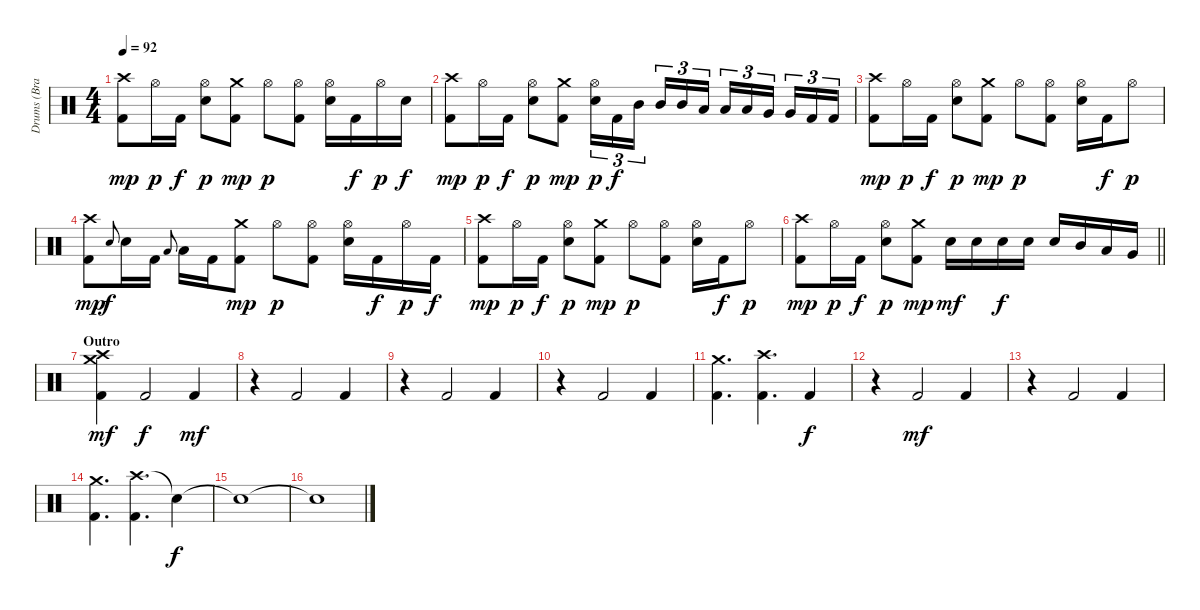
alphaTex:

\track ("Drums (Brandon Saller)" "Drums (Bra") {instrument percussion}
\staff {score}
\articulation defaults
\ts (4 4)
\tempo 92
\clef neutral
\ks c
("Crash high (hit)" "Kick (hit) 2").8{dy mp} "Hi-Hat (open)".16{dy p} "Kick (hit) 2".16{dy f} ("Hi-Hat (open)" "Electric Snare (hit)").8{dy p} ("Crash medium (hit)" "Kick (hit) 2").8{dy mp} "Hi-Hat (open)".8{dy p} ("Hi-Hat (open)" "Kick (hit) 2").8 ("Hi-Hat (open)" "Electric Snare (hit)").16 "Kick (hit) 2".16{dy f} "Hi-Hat (open)".16{dy p} "Electric Snare (hit)".16{dy f} |
("Crash high (hit)" "Kick (hit) 2").8{dy mp} "Hi-Hat (open)".16{dy p} "Kick (hit) 2".16{dy f} ("Hi-Hat (open)" "Electric Snare (hit)").8{dy p} ("Crash medium (hit)" "Kick (hit) 2").8{dy mp} ("Hi-Hat (open)" "Electric Snare (hit)").16{tu (3 2) dy p} "Kick (hit) 2".16{tu (3 2) dy f} "Mid Tom (hit)".16{tu (3 2) beam splitsecondary} "Mid Tom (hit)".16{tu (3 2)} "Mid Tom (hit)".16{tu (3 2)} "Low Tom (hit)".16{tu (3 2)} "Low Tom (hit)".16{tu (3 2)} "Low Tom (hit)".16{tu (3 2)} "Very Low Tom (hit)".16{tu (3 2) beam splitsecondary} "Very Low Tom (hit)".16{tu (3 2)} "Kick (hit) 2".16{tu (3 2)} "Kick (hit) 2".16{tu (3 2)} |
("Crash high (hit)" "Kick (hit) 2").8{dy mp} "Hi-Hat (open)".16{dy p} "Kick (hit) 2".16{dy f} ("Hi-Hat (open)" "Electric Snare (hit)").8{dy p} ("Crash medium (hit)" "Kick (hit) 2").8{dy mp} "Hi-Hat (open)".8{dy p} ("Hi-Hat (open)" "Kick (hit) 2").8 ("Hi-Hat (open)" "Electric Snare (hit)").16 "Kick (hit) 2".16{dy f} "Hi-Hat (open)".8{dy p} |
("Crash high (hit)" "Kick (hit) 2").8{dy mp} "Electric Snare (hit)"{h}.8{gr onbeat dy f} "Electric Snare (hit)".16 "Kick (hit) 2".16 "Low Tom (hit)".8{gr onbeat} "Low Tom (hit)".16 "Kick (hit) 2".16 ("Crash medium (hit)" "Kick (hit) 2").8{dy mp} "Hi-Hat (open)".8{dy p} ("Hi-Hat (open)" "Kick (hit) 2").8 ("Hi-Hat (open)" "Electric Snare (hit)").16 "Kick (hit) 2".16{dy f} "Hi-Hat (open)".16{dy p} "Kick (hit) 2".16{dy f} |
("Crash high (hit)" "Kick (hit) 2").8{dy mp} "Hi-Hat (open)".16{dy p} "Kick (hit) 2".16{dy f} ("Hi-Hat (open)" "Electric Snare (hit)").8{dy p} ("Crash medium (hit)" "Kick (hit) 2").8{dy mp} "Hi-Hat (open)".8{dy p} ("Hi-Hat (open)" "Kick (hit) 2").8 ("Hi-Hat (open)" "Electric Snare (hit)").16 "Kick (hit) 2".16{dy f} "Hi-Hat (open)".8{dy p} |
\barLineRight lightlight
("Crash high (hit)" "Kick (hit) 2").8{dy mp} "Hi-Hat (open)".16{dy p} "Kick (hit) 2".16{dy f} ("Hi-Hat (open)" "Electric Snare (hit)").8{dy p} ("Crash medium (hit)" "Kick (hit) 2").8{dy mp} "Electric Snare (hit)".16{dy mf} "Electric Snare (hit)".16 "Electric Snare (hit)".16{dy f} "Electric Snare (hit)".16 "Electric Snare (hit)".16 "Mid Tom (hit)".16 "Low Tom (hit)".16 "Very Low Tom (hit)".16 |
\section ("" "Outro")
("Crash high (hit)" "Crash medium (hit)" "Kick (hit) 2").4{dy mf} "Kick (hit) 2".2{dy f} "Kick (hit) 2".4{dy mf} |
r.4 "Kick (hit) 2".2 "Kick (hit) 2".4 |
r.4 "Kick (hit) 2".2 "Kick (hit) 2".4 |
r.4 "Kick (hit) 2".2 "Kick (hit) 2".4 |
("Crash medium (hit)" "Kick (hit) 2").4{d} ("Crash high (hit)" "Kick (hit) 2").4{d} "Kick (hit) 2".4{dy f} |
r.4 "Kick (hit) 2".2{dy mf} "Kick (hit) 2".4 |
r.4 "Kick (hit) 2".2 "Kick (hit) 2".4 |
("Crash medium (hit)" "Kick (hit) 2").4{d} ("Crash high (hit)" "Kick (hit) 2").4{d} "Snare (hit)"{t}.4{dy f} |
"Snare (hit)"{t}.1 |
"Snare (hit)"{t}.1
